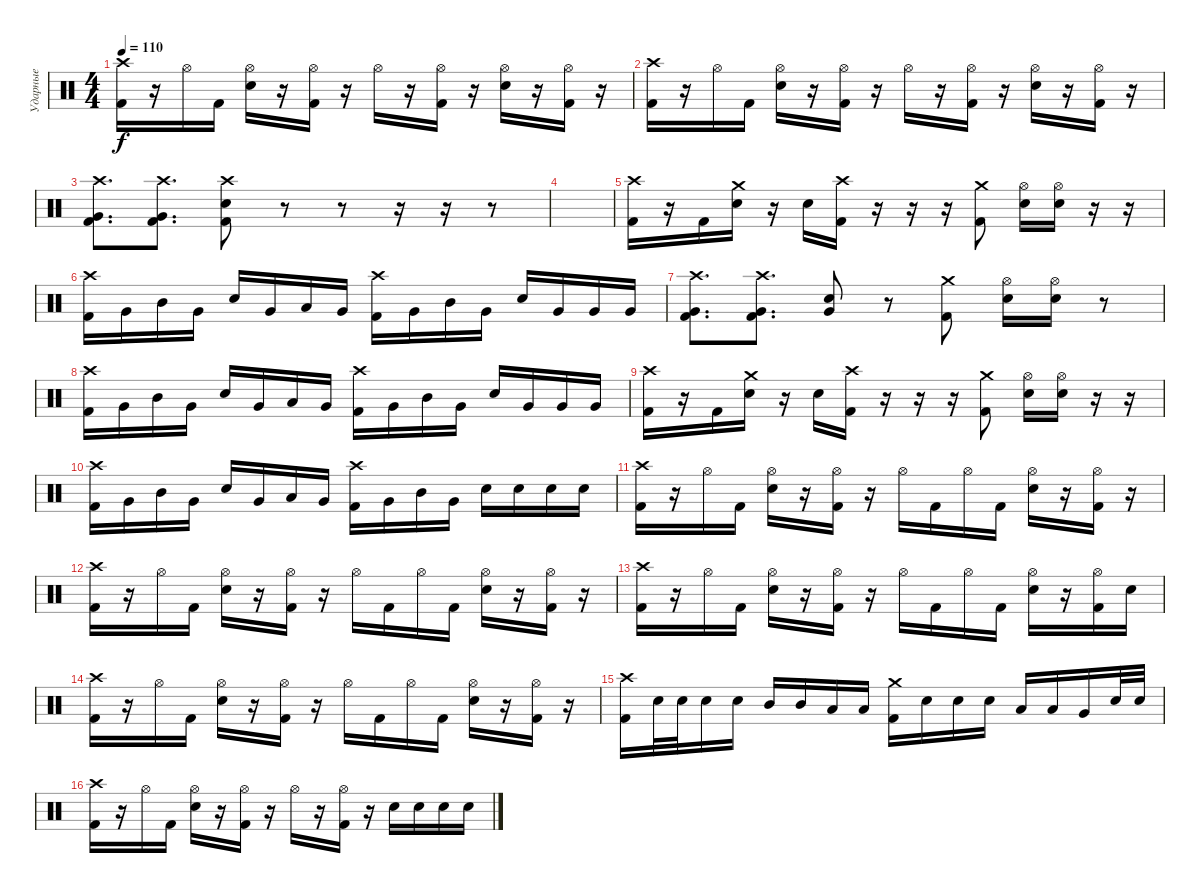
\track ("Ударные" "Ударные") {instrument percussion}
\staff {score}
\articulation defaults
\ts (4 4)
\tempo 110
\clef neutral
\ks c
("Crash high (hit)" "Kick (hit) 2").16{dy f} r.16 "Hi-Hat (open)".16 "Kick (hit) 2".16 ("Hi-Hat (open)" "Snare (hit) 2").16 r.16 ("Hi-Hat (open)" "Kick (hit) 2").16 r.16 "Hi-Hat (open)".16 r.16 ("Hi-Hat (open)" "Kick (hit) 2").16 r.16 ("Hi-Hat (open)" "Snare (hit) 2").16 r.16 ("Hi-Hat (open)" "Kick (hit) 2").16 r.16 |
("Crash high (hit)" "Kick (hit) 2").16 r.16 "Hi-Hat (open)".16 "Kick (hit) 2".16 ("Hi-Hat (open)" "Snare (hit) 2").16 r.16 ("Hi-Hat (open)" "Kick (hit) 2").16 r.16 "Hi-Hat (open)".16 r.16 ("Hi-Hat (open)" "Kick (hit) 2").16 r.16 ("Hi-Hat (open)" "Snare (hit) 2").16 r.16 ("Hi-Hat (open)" "Kick (hit) 2").16 r.16 |
("Crash high (hit)" "Very Low Tom (hit)" "Kick (hit) 2").8{d} ("Crash high (hit)" "Very Low Tom (hit)" "Kick (hit) 2").8{d} ("Crash high (hit)" "Snare (hit) 2" "Kick (hit) 2").8 r.8 r.8 r.16 r.16 r.8 |
|
("Crash high (hit)" "Kick (hit) 2").16 r.16 "Kick (hit) 2".16 ("Crash medium (hit)" "Snare (hit) 2").16 r.16 "Snare (hit) 2".16 ("Crash high (hit)" "Kick (hit) 2").16 r.16 r.16 r.16 ("Crash medium (hit)" "Kick (hit) 2").8 ("Hi-Hat (open)" "Snare (hit) 2").16 ("Hi-Hat (open)" "Snare (hit) 2").16 r.16 r.16 |
("Crash high (hit)" "Kick (hit) 2").16 "Very Low Tom (hit)".16 "Mid Tom (hit)".16 "Very Low Tom (hit)".16 "Snare (hit) 2".16 "Very Low Tom (hit)".16 "Low Tom (hit)".16 "Very Low Tom (hit)".16 ("Crash high (hit)" "Kick (hit) 2").16 "Very Low Tom (hit)".16 "Mid Tom (hit)".16 "Very Low Tom (hit)".16 "Snare (hit) 2".16 "Very Low Tom (hit)".16 "Very Low Tom (hit)".16 "Very Low Tom (hit)".16 |
("Crash high (hit)" "Very Low Tom (hit)" "Kick (hit) 2").8{d} ("Crash high (hit)" "Very Low Tom (hit)" "Kick (hit) 2").8{d} ("Snare (hit) 2" "Very Low Tom (hit)").8 r.8 ("Crash medium (hit)" "Kick (hit) 2").8 ("Hi-Hat (open)" "Snare (hit) 2").16 ("Hi-Hat (open)" "Snare (hit) 2").16 r.8 |
("Crash high (hit)" "Kick (hit) 2").16 "Very Low Tom (hit)".16 "Mid Tom (hit)".16 "Very Low Tom (hit)".16 "Snare (hit) 2".16 "Very Low Tom (hit)".16 "Low Tom (hit)".16 "Very Low Tom (hit)".16 ("Crash high (hit)" "Kick (hit) 2").16 "Very Low Tom (hit)".16 "Mid Tom (hit)".16 "Very Low Tom (hit)".16 "Snare (hit) 2".16 "Very Low Tom (hit)".16 "Very Low Tom (hit)".16 "Very Low Tom (hit)".16 |
("Crash high (hit)" "Kick (hit) 2").16 r.16 "Kick (hit) 2".16 ("Crash medium (hit)" "Snare (hit) 2").16 r.16 "Snare (hit) 2".16 ("Crash high (hit)" "Kick (hit) 2").16 r.16 r.16 r.16 ("Crash medium (hit)" "Kick (hit) 2").8 ("Hi-Hat (open)" "Snare (hit) 2").16 ("Hi-Hat (open)" "Snare (hit) 2").16 r.16 r.16 |
("Crash high (hit)" "Kick (hit) 2").16 "Very Low Tom (hit)".16 "Mid Tom (hit)".16 "Very Low Tom (hit)".16 "Snare (hit) 2".16 "Very Low Tom (hit)".16 "Low Tom (hit)".16 "Very Low Tom (hit)".16 ("Crash high (hit)" "Kick (hit) 2").16 "Very Low Tom (hit)".16 "Mid Tom (hit)".16 "Very Low Tom (hit)".16 "Snare (hit) 2".16 "Snare (hit) 2".16 "Snare (hit) 2".16 "Snare (hit) 2".16 |
("Crash high (hit)" "Kick (hit) 2").16 r.16 "Hi-Hat (open)".16 "Kick (hit) 2".16 ("Hi-Hat (open)" "Snare (hit) 2").16 r.16 ("Hi-Hat (open)" "Kick (hit) 2").16 r.16 "Hi-Hat (open)".16 "Kick (hit) 2".16 "Hi-Hat (open)".16 "Kick (hit) 2".16 ("Hi-Hat (open)" "Snare (hit) 2").16 r.16 ("Hi-Hat (open)" "Kick (hit) 2").16 r.16 |
("Crash high (hit)" "Kick (hit) 2").16 r.16 "Hi-Hat (open)".16 "Kick (hit) 2".16 ("Hi-Hat (open)" "Snare (hit) 2").16 r.16 ("Hi-Hat (open)" "Kick (hit) 2").16 r.16 "Hi-Hat (open)".16 "Kick (hit) 2".16 "Hi-Hat (open)".16 "Kick (hit) 2".16 ("Hi-Hat (open)" "Snare (hit) 2").16 r.16 ("Hi-Hat (open)" "Kick (hit) 2").16 r.16 |
("Crash high (hit)" "Kick (hit) 2").16 r.16 "Hi-Hat (open)".16 "Kick (hit) 2".16 ("Hi-Hat (open)" "Snare (hit) 2").16 r.16 ("Hi-Hat (open)" "Kick (hit) 2").16 r.16 "Hi-Hat (open)".16 "Kick (hit) 2".16 "Hi-Hat (open)".16 "Kick (hit) 2".16 ("Hi-Hat (open)" "Snare (hit) 2").16 r.16 ("Hi-Hat (open)" "Kick (hit) 2").16 "Snare (hit) 2".16 |
("Crash high (hit)" "Kick (hit) 2").16 r.16 "Hi-Hat (open)".16 "Kick (hit) 2".16 ("Hi-Hat (open)" "Snare (hit) 2").16 r.16 ("Hi-Hat (open)" "Kick (hit) 2").16 r.16 "Hi-Hat (open)".16 "Kick (hit) 2".16 "Hi-Hat (open)".16 "Kick (hit) 2".16 ("Hi-Hat (open)" "Snare (hit) 2").16 r.16 ("Hi-Hat (open)" "Kick (hit) 2").16 r.16 |
("Crash high (hit)" "Kick (hit) 2").16 "Snare (hit) 2".32 "Snare (hit) 2".32 "Snare (hit) 2".16 "Snare (hit) 2".16 "Mid Tom (hit)".16 "Mid Tom (hit)".16 "Low Tom (hit)".16 "Low Tom (hit)".16 ("Crash medium (hit)" "Kick (hit) 2").16 "Snare (hit) 2".16 "Snare (hit) 2".16 "Snare (hit) 2".16 "Low Tom (hit)".16 "Low Tom (hit)".16 "Very Low Tom (hit)".16 "Snare (hit) 2".32 "Snare (hit) 2".32 |
("Crash high (hit)" "Kick (hit) 2").16 r.16 "Hi-Hat (open)".16 "Kick (hit) 2".16 ("Hi-Hat (open)" "Snare (hit) 2").16 r.16 ("Hi-Hat (open)" "Kick (hit) 2").16 r.16 "Hi-Hat (open)".16 r.16 ("Hi-Hat (open)" "Kick (hit) 2").16 r.16 "Snare (hit) 2".16 "Snare (hit) 2".16 "Snare (hit) 2".16 "Snare (hit) 2".16
